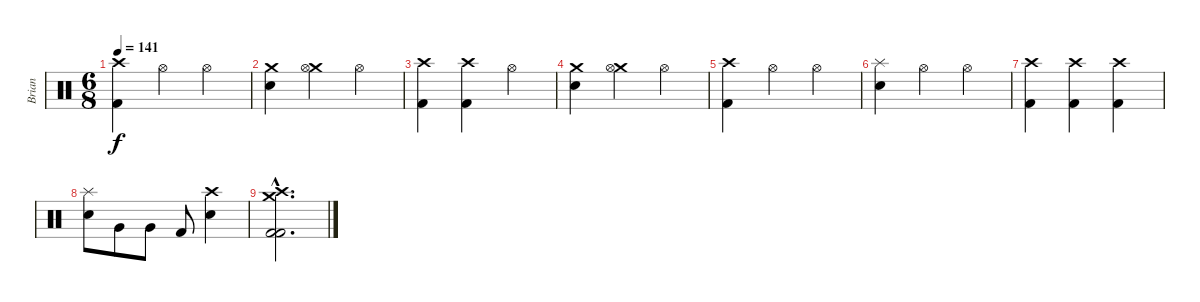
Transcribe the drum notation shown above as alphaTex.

\track ("Brian" "Brian") {instrument percussion}
\staff {score}
\articulation defaults
\ts (6 8)
\tempo 141
\clef neutral
\ks c
("Crash high (hit)" "Kick (hit) 2").4{dy f} "Hi-Hat (open)".4 "Hi-Hat (open)".4 |
("Crash medium (hit)" "Electric Snare (hit)").4 ("Crash medium (hit)" "Hi-Hat (open)").4 "Hi-Hat (open)".4 |
("Crash high (hit)" "Kick (hit) 2").4 ("Crash high (hit)" "Kick (hit) 2").4 "Hi-Hat (open)".4 |
("Crash medium (hit)" "Electric Snare (hit)").4 ("Crash medium (hit)" "Hi-Hat (open)").4 "Hi-Hat (open)".4 |
("Crash high (hit)" "Kick (hit) 2").4 "Hi-Hat (open)".4 "Hi-Hat (open)".4 |
("Splash (hit)" "Electric Snare (hit)").4 "Hi-Hat (open)".4 "Hi-Hat (open)".4 |
("Crash high (hit)" "Kick (hit) 2").4 ("Crash high (hit)" "Kick (hit) 2").4 ("Crash high (hit)" "Kick (hit) 2").4 |
("Splash (hit)" "Electric Snare (hit)").8 "Very Low Tom (hit)".8 "Very Low Tom (hit)".8 "Kick (hit) 2".8 ("Crash high (hit)" "Electric Snare (hit)").4 |
("Crash high (hit)"{hac} "Crash medium (hit)"{hac} "Kick (hit) 2"{hac} "Kick (hit) 2"{hac}).2{d}
